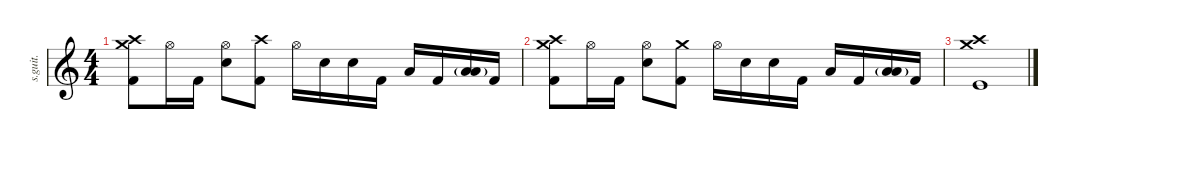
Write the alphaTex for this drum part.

\defaultSystemsLayout 4
\hideDynamics
\bracketExtendMode nobrackets
\track ("Dave Grohl | Drums" "s.guit.") {instrument percussion}
\staff {score}
\articulation defaults
\ts (4 4)
\tempo (79 hide)
\clef g2
\ks c
("Crash medium (hit)" "Crash high (hit)" "Kick (hit) 2").8{lyrics (0 "") lyrics (1 "") lyrics (2 "") lyrics (3 "") lyrics (4 "") dy f} "Hi-Hat (open)".16{lyrics (0 "") lyrics (1 "") lyrics (2 "") lyrics (3 "") lyrics (4 "")} "Kick (hit) 2".16{lyrics (0 "") lyrics (1 "") lyrics (2 "") lyrics (3 "") lyrics (4 "") dy fff} ("Hi-Hat (open)" "Snare (hit) 2").8{lyrics (0 "") lyrics (1 "") lyrics (2 "") lyrics (3 "") lyrics (4 "") dy f} ("Crash high (hit)" "Kick (hit) 2").8{lyrics (0 "") lyrics (1 "") lyrics (2 "") lyrics (3 "") lyrics (4 "")} "Hi-Hat (open)".16{lyrics (0 "") lyrics (1 "") lyrics (2 "") lyrics (3 "") lyrics (4 "")} "Snare (hit) 2".16{lyrics (0 "") lyrics (1 "") lyrics (2 "") lyrics (3 "") lyrics (4 "")} "Snare (hit) 2".16{lyrics (0 "") lyrics (1 "") lyrics (2 "") lyrics (3 "") lyrics (4 "")} "Kick (hit) 2".16{lyrics (0 "") lyrics (1 "") lyrics (2 "") lyrics (3 "") lyrics (4 "") dy fff} "Low Tom (hit)".16{lyrics (0 "") lyrics (1 "") lyrics (2 "") lyrics (3 "") lyrics (4 "") dy f} "Kick (hit) 2".16{lyrics (0 "") lyrics (1 "") lyrics (2 "") lyrics (3 "") lyrics (4 "") dy fff} ("Low Tom (hit)"{g} "Low Floor Tom (hit)").16{lyrics (0 "") lyrics (1 "") lyrics (2 "") lyrics (3 "") lyrics (4 "") dy f} "Kick (hit) 2".16{lyrics (0 "") lyrics (1 "") lyrics (2 "") lyrics (3 "") lyrics (4 "") dy fff} |
("Crash medium (hit)" "Crash high (hit)" "Kick (hit) 2").8{lyrics (0 "") lyrics (1 "") lyrics (2 "") lyrics (3 "") lyrics (4 "") dy f} "Hi-Hat (open)".16{lyrics (0 "") lyrics (1 "") lyrics (2 "") lyrics (3 "") lyrics (4 "")} "Kick (hit) 2".16{lyrics (0 "") lyrics (1 "") lyrics (2 "") lyrics (3 "") lyrics (4 "") dy fff} ("Hi-Hat (open)" "Snare (hit) 2").8{lyrics (0 "") lyrics (1 "") lyrics (2 "") lyrics (3 "") lyrics (4 "") dy f} ("Crash medium (hit)" "Kick (hit) 2").8{lyrics (0 "") lyrics (1 "") lyrics (2 "") lyrics (3 "") lyrics (4 "")} "Hi-Hat (open)".16{lyrics (0 "") lyrics (1 "") lyrics (2 "") lyrics (3 "") lyrics (4 "")} "Snare (hit) 2".16{lyrics (0 "") lyrics (1 "") lyrics (2 "") lyrics (3 "") lyrics (4 "")} "Snare (hit) 2".16{lyrics (0 "") lyrics (1 "") lyrics (2 "") lyrics (3 "") lyrics (4 "")} "Kick (hit) 2".16{lyrics (0 "") lyrics (1 "") lyrics (2 "") lyrics (3 "") lyrics (4 "")} "Low Tom (hit)".16{lyrics (0 "") lyrics (1 "") lyrics (2 "") lyrics (3 "") lyrics (4 "")} "Kick (hit) 2".16{lyrics (0 "") lyrics (1 "") lyrics (2 "") lyrics (3 "") lyrics (4 "")} ("Low Tom (hit)"{g} "Low Floor Tom (hit)").16{lyrics (0 "") lyrics (1 "") lyrics (2 "") lyrics (3 "") lyrics (4 "")} "Kick (hit) 2".16{lyrics (0 "") lyrics (1 "") lyrics (2 "") lyrics (3 "") lyrics (4 "")} |
("Crash high (hit)" "Crash medium (hit)" "Kick (hit)").1{lyrics (0 "") lyrics (1 "") lyrics (2 "") lyrics (3 "") lyrics (4 "")}
